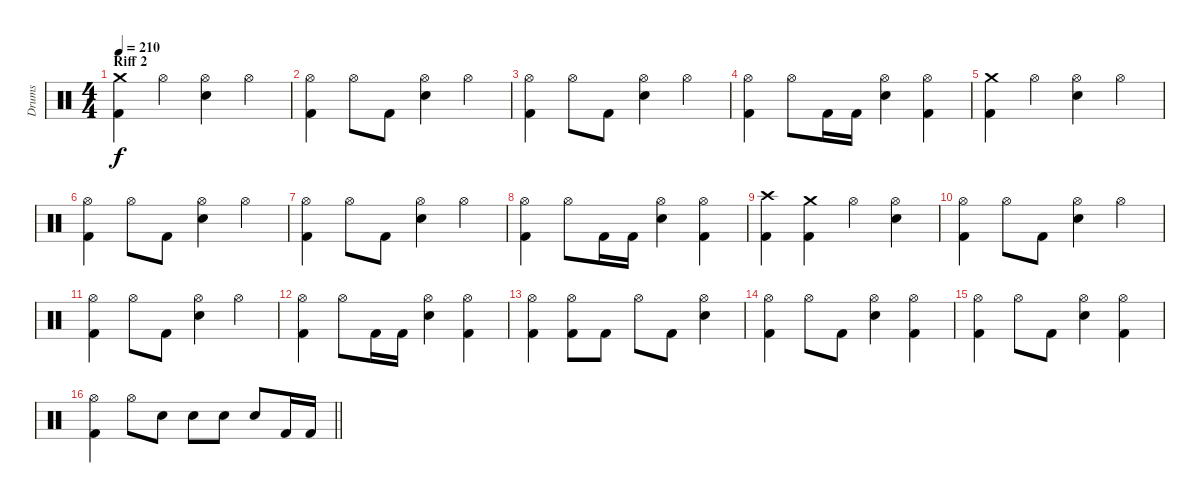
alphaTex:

\track ("Drums" "Drums") {instrument percussion}
\staff {score}
\articulation defaults
\ts (4 4)
\section ("" "Riff 2")
\tempo 210
\clef neutral
\ks c
("Crash medium (hit)" "Kick (hit) 2").4{dy f} "Hi-Hat (open)".4 ("Hi-Hat (open)" "Electric Snare (hit)").4 "Hi-Hat (open)".4 |
("Hi-Hat (open)" "Kick (hit) 2").4 "Hi-Hat (open)".8 "Kick (hit) 2".8 ("Hi-Hat (open)" "Electric Snare (hit)").4 "Hi-Hat (open)".4 |
("Hi-Hat (open)" "Kick (hit) 2").4 "Hi-Hat (open)".8 "Kick (hit) 2".8 ("Hi-Hat (open)" "Electric Snare (hit)").4 "Hi-Hat (open)".4 |
("Hi-Hat (open)" "Kick (hit) 2").4 "Hi-Hat (open)".8 "Kick (hit) 2".16 "Kick (hit) 2".16 ("Electric Snare (hit)" "Hi-Hat (open)").4 ("Hi-Hat (open)" "Kick (hit) 2").4 |
("Crash medium (hit)" "Kick (hit) 2").4 "Hi-Hat (open)".4 ("Hi-Hat (open)" "Electric Snare (hit)").4 "Hi-Hat (open)".4 |
("Hi-Hat (open)" "Kick (hit) 2").4 "Hi-Hat (open)".8 "Kick (hit) 2".8 ("Hi-Hat (open)" "Electric Snare (hit)").4 "Hi-Hat (open)".4 |
("Hi-Hat (open)" "Kick (hit) 2").4 "Hi-Hat (open)".8 "Kick (hit) 2".8 ("Hi-Hat (open)" "Electric Snare (hit)").4 "Hi-Hat (open)".4 |
("Hi-Hat (open)" "Kick (hit) 2").4 "Hi-Hat (open)".8 "Kick (hit) 2".16 "Kick (hit) 2".16 ("Electric Snare (hit)" "Hi-Hat (open)").4 ("Hi-Hat (open)" "Kick (hit) 2").4 |
("Crash high (hit)" "Kick (hit) 2").4 ("Crash medium (hit)" "Kick (hit) 2").4 "Hi-Hat (open)".4 ("Electric Snare (hit)" "Hi-Hat (open)").4 |
("Hi-Hat (open)" "Kick (hit) 2").4 "Hi-Hat (open)".8 "Kick (hit) 2".8 ("Hi-Hat (open)" "Electric Snare (hit)").4 "Hi-Hat (open)".4 |
("Hi-Hat (open)" "Kick (hit) 2").4 "Hi-Hat (open)".8 "Kick (hit) 2".8 ("Hi-Hat (open)" "Electric Snare (hit)").4 "Hi-Hat (open)".4 |
("Hi-Hat (open)" "Kick (hit) 2").4 "Hi-Hat (open)".8 "Kick (hit) 2".16 "Kick (hit) 2".16 ("Electric Snare (hit)" "Hi-Hat (open)").4 ("Hi-Hat (open)" "Kick (hit) 2").4 |
("Hi-Hat (open)" "Kick (hit) 2").4 ("Kick (hit) 2" "Hi-Hat (open)").8 "Kick (hit) 2".8 "Hi-Hat (open)".8 "Kick (hit) 2".8 ("Electric Snare (hit)" "Hi-Hat (open)").4 |
("Hi-Hat (open)" "Kick (hit) 2").4 "Hi-Hat (open)".8 "Kick (hit) 2".8 ("Hi-Hat (open)" "Electric Snare (hit)").4 ("Hi-Hat (open)" "Kick (hit) 2").4 |
("Hi-Hat (open)" "Kick (hit) 2").4 "Hi-Hat (open)".8 "Kick (hit) 2".8 ("Hi-Hat (open)" "Electric Snare (hit)").4 ("Hi-Hat (open)" "Kick (hit) 2").4 |
\barLineRight lightlight
("Kick (hit) 2" "Hi-Hat (open)").4 "Hi-Hat (open)".8 "Electric Snare (hit)".8 "Electric Snare (hit)".8 "Electric Snare (hit)".8 "Electric Snare (hit)".8 "Kick (hit) 2".16 "Kick (hit) 2".16
